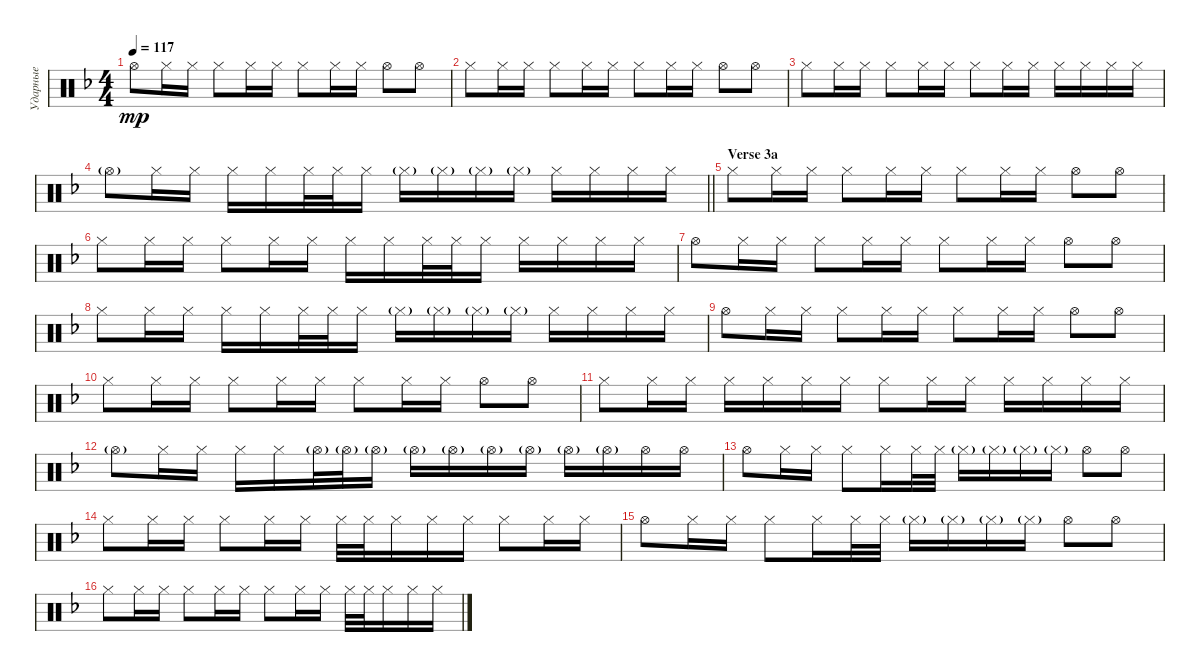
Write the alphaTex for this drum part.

\track ("Ударные" "Ударные") {instrument percussion}
\staff {score}
\articulation defaults
\ts (4 4)
\tempo 117
\clef neutral
\ks dminor "Hi-Hat (open)".8{dy mp} "Hi-Hat (closed)".16 "Hi-Hat (closed)".16 "Hi-Hat (closed)".8 "Hi-Hat (closed)".16 "Hi-Hat (closed)".16 "Hi-Hat (closed)".8 "Hi-Hat (closed)".16 "Hi-Hat (closed)".16 "Hi-Hat (open)".8 "Hi-Hat (open)".8
|
"Hi-Hat (closed)".8 "Hi-Hat (closed)".16 "Hi-Hat (closed)".16 "Hi-Hat (closed)".8 "Hi-Hat (closed)".16 "Hi-Hat (closed)".16 "Hi-Hat (closed)".8 "Hi-Hat (closed)".16 "Hi-Hat (closed)".16 "Hi-Hat (open)".8 "Hi-Hat (open)".8 |
"Hi-Hat (closed)".8 "Hi-Hat (closed)".16 "Hi-Hat (closed)".16 "Hi-Hat (closed)".8 "Hi-Hat (closed)".16 "Hi-Hat (closed)".16 "Hi-Hat (closed)".8 "Hi-Hat (closed)".16 "Hi-Hat (closed)".16 "Hi-Hat (closed)".16 "Hi-Hat (closed)".16 "Hi-Hat (closed)".16 "Hi-Hat (closed)".16 |
\barLineRight lightlight "Hi-Hat (open)"{g}.8 "Hi-Hat (closed)".16 "Hi-Hat (closed)".16 "Hi-Hat (closed)".16 "Hi-Hat (closed)".16 "Hi-Hat (closed)".32 "Hi-Hat (closed)".32 "Hi-Hat (closed)".16 "Hi-Hat (closed)"{g}.16 "Hi-Hat (closed)"{g}.16 "Hi-Hat (closed)"{g}.16 "Hi-Hat (closed)"{g}.16 "Hi-Hat (closed)".16 "Hi-Hat (closed)".16 "Hi-Hat (closed)".16 "Hi-Hat (closed)".16
|
\section ("" "Verse 3a")
"Hi-Hat (closed)".8 "Hi-Hat (closed)".16 "Hi-Hat (closed)".16 "Hi-Hat (closed)".8 "Hi-Hat (closed)".16 "Hi-Hat (closed)".16 "Hi-Hat (closed)".8 "Hi-Hat (closed)".16 "Hi-Hat (closed)".16 "Hi-Hat (open)".8 "Hi-Hat (open)".8 |
"Hi-Hat (closed)".8 "Hi-Hat (closed)".16 "Hi-Hat (closed)".16 "Hi-Hat (closed)".8 "Hi-Hat (closed)".16 "Hi-Hat (closed)".16 "Hi-Hat (closed)".16 "Hi-Hat (closed)".16 "Hi-Hat (closed)".32 "Hi-Hat (closed)".32 "Hi-Hat (closed)".16 "Hi-Hat (closed)".16 "Hi-Hat (closed)".16 "Hi-Hat (closed)".16 "Hi-Hat (closed)".16 |
"Hi-Hat (open)".8 "Hi-Hat (closed)".16 "Hi-Hat (closed)".16 "Hi-Hat (closed)".8 "Hi-Hat (closed)".16 "Hi-Hat (closed)".16 "Hi-Hat (closed)".8 "Hi-Hat (closed)".16 "Hi-Hat (closed)".16 "Hi-Hat (open)".8 "Hi-Hat (open)".8 |
"Hi-Hat (closed)".8 "Hi-Hat (closed)".16 "Hi-Hat (closed)".16 "Hi-Hat (closed)".16 "Hi-Hat (closed)".16 "Hi-Hat (closed)".32 "Hi-Hat (closed)".32 "Hi-Hat (closed)".16 "Hi-Hat (closed)"{g}.16 "Hi-Hat (closed)"{g}.16 "Hi-Hat (closed)"{g}.16 "Hi-Hat (closed)"{g}.16 "Hi-Hat (closed)".16 "Hi-Hat (closed)".16 "Hi-Hat (closed)".16 "Hi-Hat (closed)".16 |
"Hi-Hat (open)".8 "Hi-Hat (closed)".16 "Hi-Hat (closed)".16 "Hi-Hat (closed)".8 "Hi-Hat (closed)".16 "Hi-Hat (closed)".16 "Hi-Hat (closed)".8 "Hi-Hat (closed)".16 "Hi-Hat (closed)".16 "Hi-Hat (open)".8 "Hi-Hat (open)".8 |
"Hi-Hat (closed)".8 "Hi-Hat (closed)".16 "Hi-Hat (closed)".16 "Hi-Hat (closed)".8 "Hi-Hat (closed)".16 "Hi-Hat (closed)".16 "Hi-Hat (closed)".8 "Hi-Hat (closed)".16 "Hi-Hat (closed)".16 "Hi-Hat (open)".8 "Hi-Hat (open)".8 |
"Hi-Hat (closed)".8 "Hi-Hat (closed)".16 "Hi-Hat (closed)".16 "Hi-Hat (closed)".16 "Hi-Hat (closed)".16 "Hi-Hat (closed)".16 "Hi-Hat (closed)".16 "Hi-Hat (closed)".8 "Hi-Hat (closed)".16 "Hi-Hat (closed)".16 "Hi-Hat (closed)".16 "Hi-Hat (closed)".16 "Hi-Hat (closed)".16 "Hi-Hat (closed)".16 |
"Hi-Hat (open)"{g}.8 "Hi-Hat (closed)".16 "Hi-Hat (closed)".16 "Hi-Hat (closed)".16 "Hi-Hat (closed)".16 "Hi-Hat (open)"{g}.32 "Hi-Hat (open)"{g}.32 "Hi-Hat (open)"{g}.16 "Hi-Hat (open)"{g}.16 "Hi-Hat (open)"{g}.16 "Hi-Hat (open)"{g}.16 "Hi-Hat (open)"{g}.16 "Hi-Hat (open)"{g}.16 "Hi-Hat (open)"{g}.16 "Hi-Hat (open)".16 "Hi-Hat (open)".16 |
"Hi-Hat (open)".8 "Hi-Hat (closed)".16 "Hi-Hat (closed)".16 "Hi-Hat (closed)".8 "Hi-Hat (closed)".16 "Hi-Hat (closed)".32 "Hi-Hat (closed)".32 "Hi-Hat (closed)"{g}.16 "Hi-Hat (closed)"{g}.16 "Hi-Hat (closed)"{g}.16 "Hi-Hat (closed)"{g}.16 "Hi-Hat (open)".8 "Hi-Hat (open)".8 |
"Hi-Hat (closed)".8 "Hi-Hat (closed)".16 "Hi-Hat (closed)".16 "Hi-Hat (closed)".8 "Hi-Hat (closed)".16 "Hi-Hat (closed)".16 "Hi-Hat (closed)".32 "Hi-Hat (closed)".32 "Hi-Hat (closed)".16 "Hi-Hat (closed)".16 "Hi-Hat (closed)".16 "Hi-Hat (closed)".8 "Hi-Hat (closed)".16 "Hi-Hat (closed)".16 |
"Hi-Hat (open)".8 "Hi-Hat (closed)".16 "Hi-Hat (closed)".16 "Hi-Hat (closed)".8 "Hi-Hat (closed)".16 "Hi-Hat (closed)".32 "Hi-Hat (closed)".32 "Hi-Hat (closed)"{g}.16 "Hi-Hat (closed)"{g}.16 "Hi-Hat (closed)"{g}.16 "Hi-Hat (closed)"{g}.16 "Hi-Hat (open)".8 "Hi-Hat (open)".8 |
"Hi-Hat (closed)".8 "Hi-Hat (closed)".16 "Hi-Hat (closed)".16 "Hi-Hat (closed)".8 "Hi-Hat (closed)".16 "Hi-Hat (closed)".16 "Hi-Hat (closed)".8 "Hi-Hat (closed)".16 "Hi-Hat (closed)".16 "Hi-Hat (closed)".32 "Hi-Hat (closed)".32 "Hi-Hat (closed)".16 "Hi-Hat (closed)".16 "Hi-Hat (closed)".16
